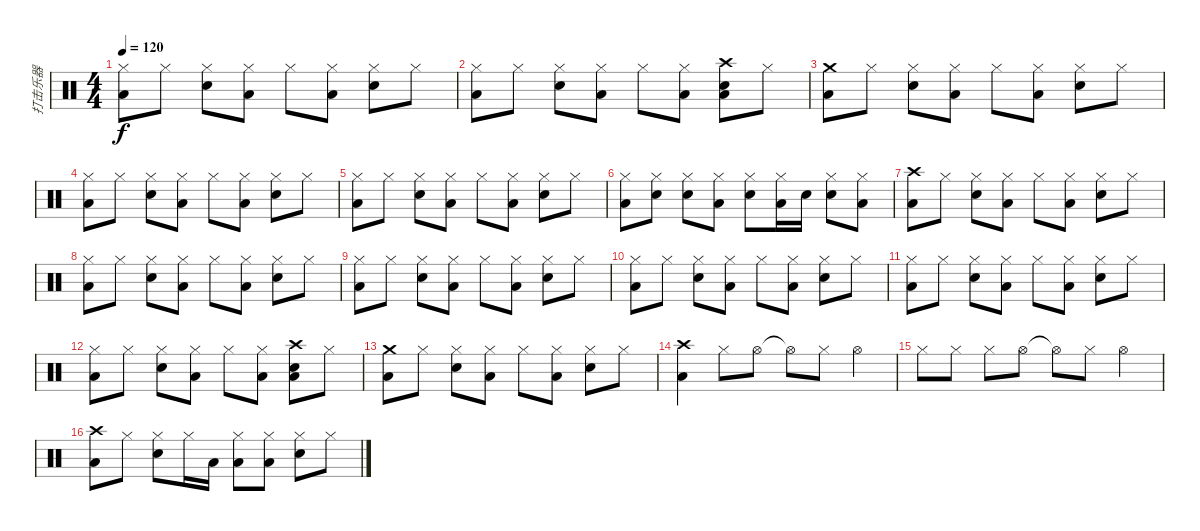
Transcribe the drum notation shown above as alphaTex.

\track ("打击乐器" "打击乐器") {instrument percussion}
\staff {score}
\articulation defaults
\ts (4 4)
\tempo 120
\clef neutral
\ks c
("Hi-Hat (closed)" "Low Floor Tom (hit)").8{dy f} "Hi-Hat (closed)".8 ("Hi-Hat (closed)" "Electric Snare (hit)").8 ("Hi-Hat (closed)" "Low Floor Tom (hit)").8 "Hi-Hat (closed)".8 ("Hi-Hat (closed)" "Low Floor Tom (hit)").8 ("Hi-Hat (closed)" "Electric Snare (hit)").8 "Hi-Hat (closed)".8 |
("Hi-Hat (closed)" "Low Floor Tom (hit)").8 "Hi-Hat (closed)".8 ("Hi-Hat (closed)" "Electric Snare (hit)").8 ("Hi-Hat (closed)" "Low Floor Tom (hit)").8 "Hi-Hat (closed)".8 ("Hi-Hat (closed)" "Low Floor Tom (hit)").8 ("Crash high (hit)" "Electric Snare (hit)" "Low Floor Tom (hit)").8 "Hi-Hat (closed)".8 |
("Crash medium (hit)" "Low Floor Tom (hit)").8 "Hi-Hat (closed)".8 ("Hi-Hat (closed)" "Electric Snare (hit)").8 ("Hi-Hat (closed)" "Low Floor Tom (hit)").8 "Hi-Hat (closed)".8 ("Hi-Hat (closed)" "Low Floor Tom (hit)").8 ("Hi-Hat (closed)" "Electric Snare (hit)").8 "Hi-Hat (closed)".8 |
("Hi-Hat (closed)" "Low Floor Tom (hit)").8 "Hi-Hat (closed)".8 ("Hi-Hat (closed)" "Electric Snare (hit)").8 ("Hi-Hat (closed)" "Low Floor Tom (hit)").8 "Hi-Hat (closed)".8 ("Hi-Hat (closed)" "Low Floor Tom (hit)").8 ("Hi-Hat (closed)" "Electric Snare (hit)").8 "Hi-Hat (closed)".8 |
("Hi-Hat (closed)" "Low Floor Tom (hit)").8 "Hi-Hat (closed)".8 ("Hi-Hat (closed)" "Electric Snare (hit)").8 ("Hi-Hat (closed)" "Low Floor Tom (hit)").8 "Hi-Hat (closed)".8 ("Hi-Hat (closed)" "Low Floor Tom (hit)").8 ("Hi-Hat (closed)" "Electric Snare (hit)").8 "Hi-Hat (closed)".8 |
("Hi-Hat (closed)" "Low Floor Tom (hit)").8 ("Hi-Hat (closed)" "Electric Snare (hit)").8 ("Hi-Hat (closed)" "Electric Snare (hit)").8 ("Hi-Hat (closed)" "Low Floor Tom (hit)").8 ("Hi-Hat (closed)" "Electric Snare (hit)").8 ("Hi-Hat (closed)" "Low Floor Tom (hit)").16 "Electric Snare (hit)".16 ("Hi-Hat (closed)" "Electric Snare (hit)").8 ("Hi-Hat (closed)" "Low Floor Tom (hit)").8 |
("Crash high (hit)" "Low Floor Tom (hit)").8 "Hi-Hat (closed)".8 ("Hi-Hat (closed)" "Electric Snare (hit)").8 ("Hi-Hat (closed)" "Low Floor Tom (hit)").8 "Hi-Hat (closed)".8 ("Hi-Hat (closed)" "Low Floor Tom (hit)").8 ("Hi-Hat (closed)" "Electric Snare (hit)").8 "Hi-Hat (closed)".8 |
("Hi-Hat (closed)" "Low Floor Tom (hit)").8 "Hi-Hat (closed)".8 ("Hi-Hat (closed)" "Electric Snare (hit)").8 ("Hi-Hat (closed)" "Low Floor Tom (hit)").8 "Hi-Hat (closed)".8 ("Hi-Hat (closed)" "Low Floor Tom (hit)").8 ("Hi-Hat (closed)" "Electric Snare (hit)").8 "Hi-Hat (closed)".8 |
("Hi-Hat (closed)" "Low Floor Tom (hit)").8 "Hi-Hat (closed)".8 ("Hi-Hat (closed)" "Electric Snare (hit)").8 ("Hi-Hat (closed)" "Low Floor Tom (hit)").8 "Hi-Hat (closed)".8 ("Hi-Hat (closed)" "Low Floor Tom (hit)").8 ("Hi-Hat (closed)" "Electric Snare (hit)").8 "Hi-Hat (closed)".8 |
("Hi-Hat (closed)" "Low Floor Tom (hit)").8 "Hi-Hat (closed)".8 ("Hi-Hat (closed)" "Electric Snare (hit)").8 ("Hi-Hat (closed)" "Low Floor Tom (hit)").8 "Hi-Hat (closed)".8 ("Hi-Hat (closed)" "Low Floor Tom (hit)").8 ("Hi-Hat (closed)" "Electric Snare (hit)").8 "Hi-Hat (closed)".8 |
("Hi-Hat (closed)" "Low Floor Tom (hit)").8 "Hi-Hat (closed)".8 ("Hi-Hat (closed)" "Electric Snare (hit)").8 ("Hi-Hat (closed)" "Low Floor Tom (hit)").8 "Hi-Hat (closed)".8 ("Hi-Hat (closed)" "Low Floor Tom (hit)").8 ("Hi-Hat (closed)" "Electric Snare (hit)").8 "Hi-Hat (closed)".8 |
("Hi-Hat (closed)" "Low Floor Tom (hit)").8 "Hi-Hat (closed)".8 ("Hi-Hat (closed)" "Electric Snare (hit)").8 ("Hi-Hat (closed)" "Low Floor Tom (hit)").8 "Hi-Hat (closed)".8 ("Hi-Hat (closed)" "Low Floor Tom (hit)").8 ("Crash high (hit)" "Electric Snare (hit)" "Low Floor Tom (hit)").8 "Hi-Hat (closed)".8 |
("Crash medium (hit)" "Low Floor Tom (hit)").8 "Hi-Hat (closed)".8 ("Hi-Hat (closed)" "Electric Snare (hit)").8 ("Hi-Hat (closed)" "Low Floor Tom (hit)").8 "Hi-Hat (closed)".8 ("Hi-Hat (closed)" "Low Floor Tom (hit)").8 ("Hi-Hat (closed)" "Electric Snare (hit)").8 "Hi-Hat (closed)".8 |
("Crash high (hit)" "Low Floor Tom (hit)").4 "Hi-Hat (closed)".8 "Hi-Hat (open)".8 "Hi-Hat (open)"{t}.8 "Hi-Hat (closed)".8 "Hi-Hat (open)".4 |
"Hi-Hat (closed)".8 "Hi-Hat (closed)".8 "Hi-Hat (closed)".8 "Hi-Hat (open)".8 "Hi-Hat (open)"{t}.8 "Hi-Hat (closed)".8 "Hi-Hat (open)".4 |
("Crash high (hit)" "Low Floor Tom (hit)").8 "Hi-Hat (closed)".8 ("Hi-Hat (closed)" "Electric Snare (hit)").8 "Hi-Hat (closed)".16 "Low Floor Tom (hit)".16 ("Hi-Hat (closed)" "Low Floor Tom (hit)").8 ("Hi-Hat (closed)" "Low Floor Tom (hit)").8 ("Hi-Hat (closed)" "Electric Snare (hit)").8 "Hi-Hat (closed)".8
